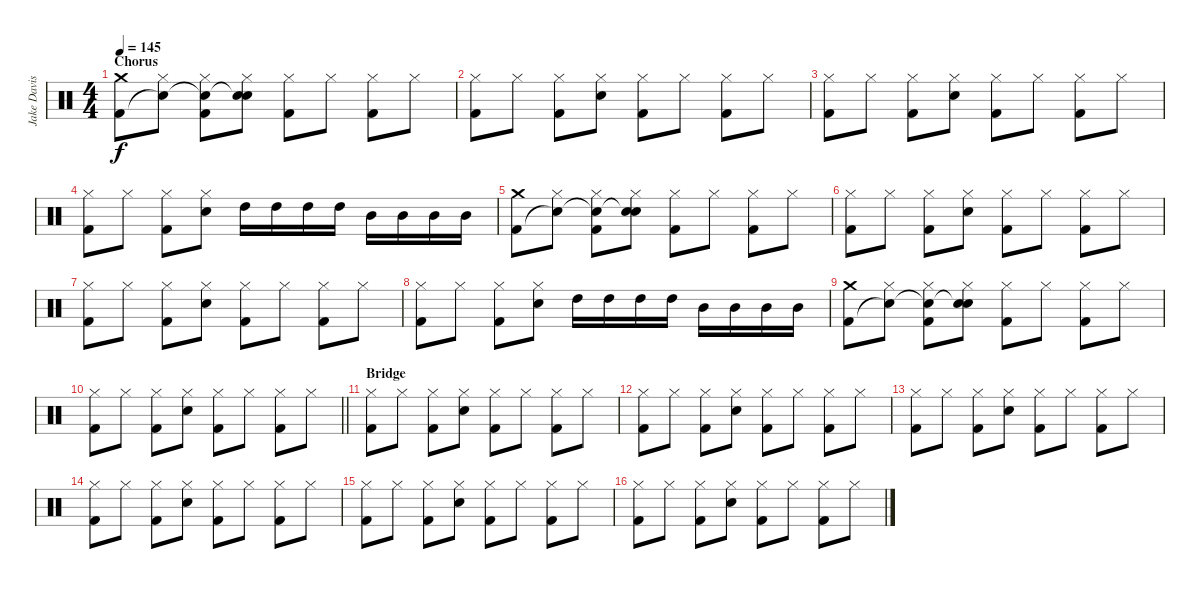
\track ("Jake Davison (Drums)" "Jake Davis") {instrument percussion}
\staff {score}
\articulation defaults
\ts (4 4)
\section ("" "Chorus")
\tempo 145
\clef neutral
\ks c
("Crash medium (hit)" "Kick (hit) 2").8{dy f} ("Hi-Hat (closed)" "Snare (hit)"{t}).8 ("Hi-Hat (closed)" "Snare (hit)"{t} "Kick (hit) 2").8 ("Hi-Hat (closed)" "Snare (hit)"{t} "Electric Snare (hit)").8 ("Hi-Hat (closed)" "Kick (hit) 2").8 "Hi-Hat (closed)".8 ("Hi-Hat (closed)" "Kick (hit) 2").8 "Hi-Hat (closed)".8 |
("Hi-Hat (closed)" "Kick (hit) 2").8 "Hi-Hat (closed)".8 ("Hi-Hat (closed)" "Kick (hit) 2").8 ("Hi-Hat (closed)" "Electric Snare (hit)").8 ("Hi-Hat (closed)" "Kick (hit) 2").8 "Hi-Hat (closed)".8 ("Hi-Hat (closed)" "Kick (hit) 2").8 "Hi-Hat (closed)".8 |
("Hi-Hat (closed)" "Kick (hit) 2").8 "Hi-Hat (closed)".8 ("Hi-Hat (closed)" "Kick (hit) 2").8 ("Hi-Hat (closed)" "Electric Snare (hit)").8 ("Hi-Hat (closed)" "Kick (hit) 2").8 "Hi-Hat (closed)".8 ("Hi-Hat (closed)" "Kick (hit) 2").8 "Hi-Hat (closed)".8 |
("Hi-Hat (closed)" "Kick (hit) 2").8 "Hi-Hat (closed)".8 ("Hi-Hat (closed)" "Kick (hit) 2").8 ("Hi-Hat (closed)" "Electric Snare (hit)").8 "High Tom (hit)".16 "High Tom (hit)".16 "High Tom (hit)".16 "High Tom (hit)".16 "Mid Tom (hit)".16 "Mid Tom (hit)".16 "Mid Tom (hit)".16 "Mid Tom (hit)".16 |
("Crash medium (hit)" "Kick (hit) 2").8 ("Hi-Hat (closed)" "Snare (hit)"{t}).8 ("Hi-Hat (closed)" "Snare (hit)"{t} "Kick (hit) 2").8 ("Hi-Hat (closed)" "Snare (hit)"{t} "Electric Snare (hit)").8 ("Hi-Hat (closed)" "Kick (hit) 2").8 "Hi-Hat (closed)".8 ("Hi-Hat (closed)" "Kick (hit) 2").8 "Hi-Hat (closed)".8 |
("Hi-Hat (closed)" "Kick (hit) 2").8 "Hi-Hat (closed)".8 ("Hi-Hat (closed)" "Kick (hit) 2").8 ("Hi-Hat (closed)" "Electric Snare (hit)").8 ("Hi-Hat (closed)" "Kick (hit) 2").8 "Hi-Hat (closed)".8 ("Hi-Hat (closed)" "Kick (hit) 2").8 "Hi-Hat (closed)".8 |
("Hi-Hat (closed)" "Kick (hit) 2").8 "Hi-Hat (closed)".8 ("Hi-Hat (closed)" "Kick (hit) 2").8 ("Hi-Hat (closed)" "Electric Snare (hit)").8 ("Hi-Hat (closed)" "Kick (hit) 2").8 "Hi-Hat (closed)".8 ("Hi-Hat (closed)" "Kick (hit) 2").8 "Hi-Hat (closed)".8 |
("Hi-Hat (closed)" "Kick (hit) 2").8 "Hi-Hat (closed)".8 ("Hi-Hat (closed)" "Kick (hit) 2").8 ("Hi-Hat (closed)" "Electric Snare (hit)").8 "High Tom (hit)".16 "High Tom (hit)".16 "High Tom (hit)".16 "High Tom (hit)".16 "Mid Tom (hit)".16 "Mid Tom (hit)".16 "Mid Tom (hit)".16 "Mid Tom (hit)".16 |
("Crash medium (hit)" "Kick (hit) 2").8 ("Hi-Hat (closed)" "Snare (hit)"{t}).8 ("Hi-Hat (closed)" "Snare (hit)"{t} "Kick (hit) 2").8 ("Hi-Hat (closed)" "Snare (hit)"{t} "Electric Snare (hit)").8 ("Hi-Hat (closed)" "Kick (hit) 2").8 "Hi-Hat (closed)".8 ("Hi-Hat (closed)" "Kick (hit) 2").8 "Hi-Hat (closed)".8 |
\barLineRight lightlight
("Hi-Hat (closed)" "Kick (hit) 2").8 "Hi-Hat (closed)".8 ("Hi-Hat (closed)" "Kick (hit) 2").8 ("Hi-Hat (closed)" "Electric Snare (hit)").8 ("Hi-Hat (closed)" "Kick (hit) 2").8 "Hi-Hat (closed)".8 ("Hi-Hat (closed)" "Kick (hit) 2").8 "Hi-Hat (closed)".8 |
\section ("" "Bridge")
("Hi-Hat (closed)" "Kick (hit) 2").8 "Hi-Hat (closed)".8 ("Hi-Hat (closed)" "Kick (hit) 2").8 ("Hi-Hat (closed)" "Electric Snare (hit)").8 ("Hi-Hat (closed)" "Kick (hit) 2").8 "Hi-Hat (closed)".8 ("Hi-Hat (closed)" "Kick (hit) 2").8 "Hi-Hat (closed)".8 |
("Hi-Hat (closed)" "Kick (hit) 2").8 "Hi-Hat (closed)".8 ("Hi-Hat (closed)" "Kick (hit) 2").8 ("Hi-Hat (closed)" "Electric Snare (hit)").8 ("Hi-Hat (closed)" "Kick (hit) 2").8 "Hi-Hat (closed)".8 ("Hi-Hat (closed)" "Kick (hit) 2").8 "Hi-Hat (closed)".8 |
("Hi-Hat (closed)" "Kick (hit) 2").8 "Hi-Hat (closed)".8 ("Hi-Hat (closed)" "Kick (hit) 2").8 ("Hi-Hat (closed)" "Electric Snare (hit)").8 ("Hi-Hat (closed)" "Kick (hit) 2").8 "Hi-Hat (closed)".8 ("Hi-Hat (closed)" "Kick (hit) 2").8 "Hi-Hat (closed)".8 |
("Hi-Hat (closed)" "Kick (hit) 2").8 "Hi-Hat (closed)".8 ("Hi-Hat (closed)" "Kick (hit) 2").8 ("Hi-Hat (closed)" "Electric Snare (hit)").8 ("Hi-Hat (closed)" "Kick (hit) 2").8 "Hi-Hat (closed)".8 ("Hi-Hat (closed)" "Kick (hit) 2").8 "Hi-Hat (closed)".8 |
("Hi-Hat (closed)" "Kick (hit) 2").8 "Hi-Hat (closed)".8 ("Hi-Hat (closed)" "Kick (hit) 2").8 ("Hi-Hat (closed)" "Electric Snare (hit)").8 ("Hi-Hat (closed)" "Kick (hit) 2").8 "Hi-Hat (closed)".8 ("Hi-Hat (closed)" "Kick (hit) 2").8 "Hi-Hat (closed)".8 |
("Hi-Hat (closed)" "Kick (hit) 2").8 "Hi-Hat (closed)".8 ("Hi-Hat (closed)" "Kick (hit) 2").8 ("Hi-Hat (closed)" "Electric Snare (hit)").8 ("Hi-Hat (closed)" "Kick (hit) 2").8 "Hi-Hat (closed)".8 ("Hi-Hat (closed)" "Kick (hit) 2").8 "Hi-Hat (closed)".8
